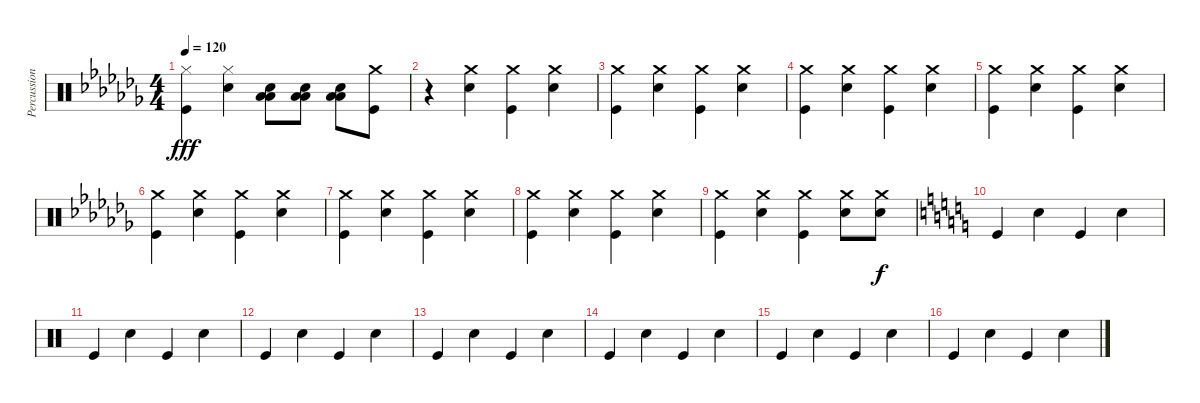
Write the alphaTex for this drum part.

\track ("Percussion" "Percussion") {instrument percussion}
\staff {score}
\articulation defaults
\ts (4 4)
\tempo 120
\clef neutral
\ks abminor
("Hi-Hat (closed)" "Kick (hit)").4{dy fff} ("Hi-Hat (closed)" "Snare (hit) 2").4 ("Snare (hit) 2" "Low Tom (hit)" "Low Floor Tom (hit)").8 ("Snare (hit) 2" "Low Tom (hit)" "Low Floor Tom (hit)").8 ("Snare (hit) 2" "Low Tom (hit)" "Low Floor Tom (hit)").8 ("Crash medium (hit)" "Kick (hit)").8 |
r.4 ("Crash medium (hit)" "Snare (hit) 2").4 ("Crash medium (hit)" "Kick (hit)").4 ("Crash medium (hit)" "Snare (hit) 2").4 |
("Crash medium (hit)" "Kick (hit)").4 ("Crash medium (hit)" "Snare (hit) 2").4 ("Crash medium (hit)" "Kick (hit)").4 ("Crash medium (hit)" "Snare (hit) 2").4 |
("Crash medium (hit)" "Kick (hit)").4 ("Crash medium (hit)" "Snare (hit) 2").4 ("Crash medium (hit)" "Kick (hit)").4 ("Crash medium (hit)" "Snare (hit) 2").4 |
("Crash medium (hit)" "Kick (hit)").4 ("Crash medium (hit)" "Snare (hit) 2").4 ("Crash medium (hit)" "Kick (hit)").4 ("Crash medium (hit)" "Snare (hit) 2").4 |
("Crash medium (hit)" "Kick (hit)").4 ("Crash medium (hit)" "Snare (hit) 2").4 ("Crash medium (hit)" "Kick (hit)").4 ("Crash medium (hit)" "Snare (hit) 2").4 |
("Crash medium (hit)" "Kick (hit)").4 ("Crash medium (hit)" "Snare (hit) 2").4 ("Crash medium (hit)" "Kick (hit)").4 ("Crash medium (hit)" "Snare (hit) 2").4 |
("Crash medium (hit)" "Kick (hit)").4 ("Crash medium (hit)" "Snare (hit) 2").4 ("Crash medium (hit)" "Kick (hit)").4 ("Crash medium (hit)" "Snare (hit) 2").4 |
("Crash medium (hit)" "Kick (hit)").4 ("Crash medium (hit)" "Snare (hit) 2").4 ("Crash medium (hit)" "Kick (hit)").4 ("Crash medium (hit)" "Snare (hit) 2").8 ("Crash medium (hit)" "Snare (hit) 2").8{dy f} |
\ks aminor "Kick (hit)".4 "Snare (hit) 2".4 "Kick (hit)".4 "Snare (hit) 2".4
|
"Kick (hit)".4 "Snare (hit) 2".4 "Kick (hit)".4 "Snare (hit) 2".4 |
"Kick (hit)".4 "Snare (hit) 2".4 "Kick (hit)".4 "Snare (hit) 2".4 |
"Kick (hit)".4 "Snare (hit) 2".4 "Kick (hit)".4 "Snare (hit) 2".4 |
"Kick (hit)".4 "Snare (hit) 2".4 "Kick (hit)".4 "Snare (hit) 2".4 |
"Kick (hit)".4 "Snare (hit) 2".4 "Kick (hit)".4 "Snare (hit) 2".4 |
"Kick (hit)".4 "Snare (hit) 2".4 "Kick (hit)".4 "Snare (hit) 2".4
